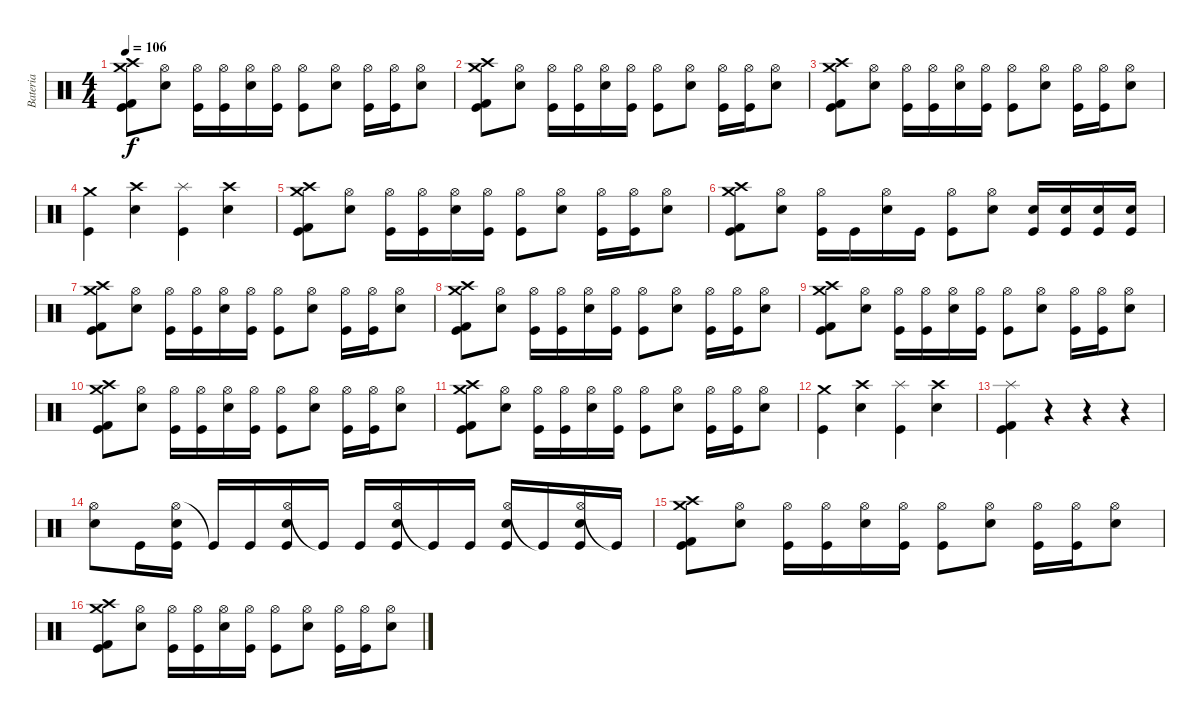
\track ("Bateria" "Bateria") {instrument percussion}
\staff {score}
\articulation defaults
\ts (4 4)
\tempo 106
\clef neutral
\ks c
("Crash medium (hit)" "Crash high (hit)" "Kick (hit) 2" "Kick (hit)").8{dy f} ("Hi-Hat (open)" "Electric Snare (hit)").8 ("Hi-Hat (open)" "Kick (hit)").16 ("Hi-Hat (open)" "Kick (hit)").16 ("Hi-Hat (open)" "Electric Snare (hit)").16 ("Hi-Hat (open)" "Kick (hit)").16 ("Hi-Hat (open)" "Kick (hit)").8 ("Hi-Hat (open)" "Electric Snare (hit)").8 ("Hi-Hat (open)" "Kick (hit)").16 ("Hi-Hat (open)" "Kick (hit)").16 ("Hi-Hat (open)" "Electric Snare (hit)").8 |
("Crash medium (hit)" "Crash high (hit)" "Kick (hit) 2" "Kick (hit)").8 ("Hi-Hat (open)" "Electric Snare (hit)").8 ("Hi-Hat (open)" "Kick (hit)").16 ("Hi-Hat (open)" "Kick (hit)").16 ("Hi-Hat (open)" "Electric Snare (hit)").16 ("Hi-Hat (open)" "Kick (hit)").16 ("Hi-Hat (open)" "Kick (hit)").8 ("Hi-Hat (open)" "Electric Snare (hit)").8 ("Hi-Hat (open)" "Kick (hit)").16 ("Hi-Hat (open)" "Kick (hit)").16 ("Hi-Hat (open)" "Electric Snare (hit)").8 |
("Crash medium (hit)" "Crash high (hit)" "Kick (hit) 2" "Kick (hit)").8 ("Hi-Hat (open)" "Electric Snare (hit)").8 ("Hi-Hat (open)" "Kick (hit)").16 ("Hi-Hat (open)" "Kick (hit)").16 ("Hi-Hat (open)" "Electric Snare (hit)").16 ("Hi-Hat (open)" "Kick (hit)").16 ("Hi-Hat (open)" "Kick (hit)").8 ("Hi-Hat (open)" "Electric Snare (hit)").8 ("Hi-Hat (open)" "Kick (hit)").16 ("Hi-Hat (open)" "Kick (hit)").16 ("Hi-Hat (open)" "Electric Snare (hit)").8 |
("Crash medium (hit)" "Kick (hit)").4 ("Crash high (hit)" "Electric Snare (hit)").4 ("Splash (hit)" "Kick (hit)").4 ("Crash high (hit)" "Electric Snare (hit)").4 |
("Crash medium (hit)" "Crash high (hit)" "Kick (hit) 2" "Kick (hit)").8 ("Hi-Hat (open)" "Electric Snare (hit)").8 ("Hi-Hat (open)" "Kick (hit)").16 ("Hi-Hat (open)" "Kick (hit)").16 ("Hi-Hat (open)" "Electric Snare (hit)").16 ("Hi-Hat (open)" "Kick (hit)").16 ("Hi-Hat (open)" "Kick (hit)").8 ("Hi-Hat (open)" "Electric Snare (hit)").8 ("Hi-Hat (open)" "Kick (hit)").16 ("Hi-Hat (open)" "Kick (hit)").16 ("Hi-Hat (open)" "Electric Snare (hit)").8 |
("Crash medium (hit)" "Crash high (hit)" "Kick (hit) 2" "Kick (hit)").8 ("Hi-Hat (open)" "Electric Snare (hit)").8 ("Hi-Hat (open)" "Kick (hit)").16 "Kick (hit)".16 ("Hi-Hat (open)" "Electric Snare (hit)").16 "Kick (hit)".16 ("Hi-Hat (open)" "Kick (hit)").8 ("Hi-Hat (open)" "Electric Snare (hit)").8 ("Electric Snare (hit)" "Kick (hit)").16 ("Electric Snare (hit)" "Kick (hit)").16 ("Electric Snare (hit)" "Kick (hit)").16 ("Electric Snare (hit)" "Kick (hit)").16 |
("Crash medium (hit)" "Crash high (hit)" "Kick (hit) 2" "Kick (hit)").8 ("Hi-Hat (open)" "Electric Snare (hit)").8 ("Hi-Hat (open)" "Kick (hit)").16 ("Hi-Hat (open)" "Kick (hit)").16 ("Hi-Hat (open)" "Electric Snare (hit)").16 ("Hi-Hat (open)" "Kick (hit)").16 ("Hi-Hat (open)" "Kick (hit)").8 ("Hi-Hat (open)" "Electric Snare (hit)").8 ("Hi-Hat (open)" "Kick (hit)").16 ("Hi-Hat (open)" "Kick (hit)").16 ("Hi-Hat (open)" "Electric Snare (hit)").8 |
("Crash medium (hit)" "Crash high (hit)" "Kick (hit) 2" "Kick (hit)").8 ("Hi-Hat (open)" "Electric Snare (hit)").8 ("Hi-Hat (open)" "Kick (hit)").16 ("Hi-Hat (open)" "Kick (hit)").16 ("Hi-Hat (open)" "Electric Snare (hit)").16 ("Hi-Hat (open)" "Kick (hit)").16 ("Hi-Hat (open)" "Kick (hit)").8 ("Hi-Hat (open)" "Electric Snare (hit)").8 ("Hi-Hat (open)" "Kick (hit)").16 ("Hi-Hat (open)" "Kick (hit)").16 ("Hi-Hat (open)" "Electric Snare (hit)").8 |
("Crash medium (hit)" "Crash high (hit)" "Kick (hit) 2" "Kick (hit)").8 ("Hi-Hat (open)" "Electric Snare (hit)").8 ("Hi-Hat (open)" "Kick (hit)").16 ("Hi-Hat (open)" "Kick (hit)").16 ("Hi-Hat (open)" "Electric Snare (hit)").16 ("Hi-Hat (open)" "Kick (hit)").16 ("Hi-Hat (open)" "Kick (hit)").8 ("Hi-Hat (open)" "Electric Snare (hit)").8 ("Hi-Hat (open)" "Kick (hit)").16 ("Hi-Hat (open)" "Kick (hit)").16 ("Hi-Hat (open)" "Electric Snare (hit)").8 |
("Crash medium (hit)" "Crash high (hit)" "Kick (hit) 2" "Kick (hit)").8 ("Hi-Hat (open)" "Electric Snare (hit)").8 ("Hi-Hat (open)" "Kick (hit)").16 ("Hi-Hat (open)" "Kick (hit)").16 ("Hi-Hat (open)" "Electric Snare (hit)").16 ("Hi-Hat (open)" "Kick (hit)").16 ("Hi-Hat (open)" "Kick (hit)").8 ("Hi-Hat (open)" "Electric Snare (hit)").8 ("Hi-Hat (open)" "Kick (hit)").16 ("Hi-Hat (open)" "Kick (hit)").16 ("Hi-Hat (open)" "Electric Snare (hit)").8 |
("Crash medium (hit)" "Crash high (hit)" "Kick (hit) 2" "Kick (hit)").8 ("Hi-Hat (open)" "Electric Snare (hit)").8 ("Hi-Hat (open)" "Kick (hit)").16 ("Hi-Hat (open)" "Kick (hit)").16 ("Hi-Hat (open)" "Electric Snare (hit)").16 ("Hi-Hat (open)" "Kick (hit)").16 ("Hi-Hat (open)" "Kick (hit)").8 ("Hi-Hat (open)" "Electric Snare (hit)").8 ("Hi-Hat (open)" "Kick (hit)").16 ("Hi-Hat (open)" "Kick (hit)").16 ("Hi-Hat (open)" "Electric Snare (hit)").8 |
("Crash medium (hit)" "Kick (hit)").4 ("Crash high (hit)" "Electric Snare (hit)").4 ("Splash (hit)" "Kick (hit)").4 ("Crash high (hit)" "Electric Snare (hit)").4 |
("Splash (hit)" "Kick (hit) 2" "Kick (hit)").4 r.4 r.4 r.4 |
("Hi-Hat (open)" "Electric Snare (hit)").8 "Kick (hit)".16 ("Hi-Hat (open)" "Electric Snare (hit)" "Kick (hit)").16 "Kick (hit)"{t}.16 "Kick (hit)".16 ("Hi-Hat (open)" "Electric Snare (hit)" "Kick (hit)").16 "Kick (hit)"{t}.16 "Kick (hit)".16 ("Hi-Hat (open)" "Electric Snare (hit)" "Kick (hit)").16 "Kick (hit)"{t}.16 "Kick (hit)".16 ("Hi-Hat (open)" "Electric Snare (hit)" "Kick (hit)").16 "Kick (hit)"{t}.16 ("Hi-Hat (open)" "Electric Snare (hit)" "Kick (hit)").16 "Kick (hit)"{t}.16 |
("Crash medium (hit)" "Crash high (hit)" "Kick (hit) 2" "Kick (hit)").8 ("Hi-Hat (open)" "Electric Snare (hit)").8 ("Hi-Hat (open)" "Kick (hit)").16 ("Hi-Hat (open)" "Kick (hit)").16 ("Hi-Hat (open)" "Electric Snare (hit)").16 ("Hi-Hat (open)" "Kick (hit)").16 ("Hi-Hat (open)" "Kick (hit)").8 ("Hi-Hat (open)" "Electric Snare (hit)").8 ("Hi-Hat (open)" "Kick (hit)").16 ("Hi-Hat (open)" "Kick (hit)").16 ("Hi-Hat (open)" "Electric Snare (hit)").8 |
("Crash medium (hit)" "Crash high (hit)" "Kick (hit) 2" "Kick (hit)").8 ("Hi-Hat (open)" "Electric Snare (hit)").8 ("Hi-Hat (open)" "Kick (hit)").16 ("Hi-Hat (open)" "Kick (hit)").16 ("Hi-Hat (open)" "Electric Snare (hit)").16 ("Hi-Hat (open)" "Kick (hit)").16 ("Hi-Hat (open)" "Kick (hit)").8 ("Hi-Hat (open)" "Electric Snare (hit)").8 ("Hi-Hat (open)" "Kick (hit)").16 ("Hi-Hat (open)" "Kick (hit)").16 ("Hi-Hat (open)" "Electric Snare (hit)").8
